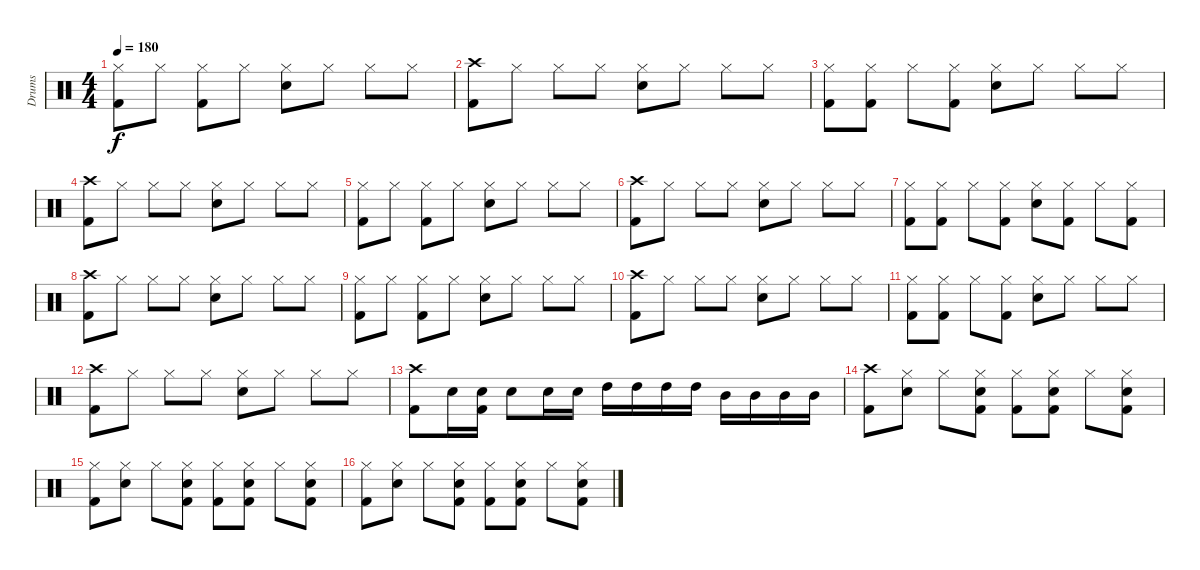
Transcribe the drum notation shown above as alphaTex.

\track ("Drums" "Drums") {instrument percussion}
\staff {score}
\articulation defaults
\ts (4 4)
\tempo 180
\clef neutral
\ks c
("Hi-Hat (closed)" "Kick (hit) 2").8{dy f} "Hi-Hat (closed)".8 ("Hi-Hat (closed)" "Kick (hit) 2").8 "Hi-Hat (closed)".8 ("Hi-Hat (closed)" "Snare (hit) 2").8 "Hi-Hat (closed)".8 "Hi-Hat (closed)".8 "Hi-Hat (closed)".8 |
("Crash high (hit)" "Kick (hit) 2").8 "Hi-Hat (closed)".8 "Hi-Hat (closed)".8 "Hi-Hat (closed)".8 ("Hi-Hat (closed)" "Snare (hit) 2").8 "Hi-Hat (closed)".8 "Hi-Hat (closed)".8 "Hi-Hat (closed)".8 |
("Hi-Hat (closed)" "Kick (hit) 2").8 ("Hi-Hat (closed)" "Kick (hit) 2").8 "Hi-Hat (closed)".8 ("Hi-Hat (closed)" "Kick (hit) 2").8 ("Hi-Hat (closed)" "Snare (hit) 2").8 "Hi-Hat (closed)".8 "Hi-Hat (closed)".8 "Hi-Hat (closed)".8 |
("Crash high (hit)" "Kick (hit) 2").8 "Hi-Hat (closed)".8 "Hi-Hat (closed)".8 "Hi-Hat (closed)".8 ("Hi-Hat (closed)" "Snare (hit) 2").8 "Hi-Hat (closed)".8 "Hi-Hat (closed)".8 "Hi-Hat (closed)".8 |
("Hi-Hat (closed)" "Kick (hit) 2").8 "Hi-Hat (closed)".8 ("Hi-Hat (closed)" "Kick (hit) 2").8 "Hi-Hat (closed)".8 ("Hi-Hat (closed)" "Snare (hit) 2").8 "Hi-Hat (closed)".8 "Hi-Hat (closed)".8 "Hi-Hat (closed)".8 |
("Crash high (hit)" "Kick (hit) 2").8 "Hi-Hat (closed)".8 "Hi-Hat (closed)".8 "Hi-Hat (closed)".8 ("Hi-Hat (closed)" "Snare (hit) 2").8 "Hi-Hat (closed)".8 "Hi-Hat (closed)".8 "Hi-Hat (closed)".8 |
("Hi-Hat (closed)" "Kick (hit) 2").8 ("Hi-Hat (closed)" "Kick (hit) 2").8 "Hi-Hat (closed)".8 ("Hi-Hat (closed)" "Kick (hit) 2").8 ("Hi-Hat (closed)" "Snare (hit) 2").8 ("Hi-Hat (closed)" "Kick (hit) 2").8 "Hi-Hat (closed)".8 ("Hi-Hat (closed)" "Kick (hit) 2").8 |
("Crash high (hit)" "Kick (hit) 2").8 "Hi-Hat (closed)".8 "Hi-Hat (closed)".8 "Hi-Hat (closed)".8 ("Hi-Hat (closed)" "Snare (hit) 2").8 "Hi-Hat (closed)".8 "Hi-Hat (closed)".8 "Hi-Hat (closed)".8 |
("Hi-Hat (closed)" "Kick (hit) 2").8 "Hi-Hat (closed)".8 ("Hi-Hat (closed)" "Kick (hit) 2").8 "Hi-Hat (closed)".8 ("Hi-Hat (closed)" "Snare (hit) 2").8 "Hi-Hat (closed)".8 "Hi-Hat (closed)".8 "Hi-Hat (closed)".8 |
("Crash high (hit)" "Kick (hit) 2").8 "Hi-Hat (closed)".8 "Hi-Hat (closed)".8 "Hi-Hat (closed)".8 ("Hi-Hat (closed)" "Snare (hit) 2").8 "Hi-Hat (closed)".8 "Hi-Hat (closed)".8 "Hi-Hat (closed)".8 |
("Hi-Hat (closed)" "Kick (hit) 2").8 ("Hi-Hat (closed)" "Kick (hit) 2").8 "Hi-Hat (closed)".8 ("Hi-Hat (closed)" "Kick (hit) 2").8 ("Hi-Hat (closed)" "Snare (hit) 2").8 "Hi-Hat (closed)".8 "Hi-Hat (closed)".8 "Hi-Hat (closed)".8 |
("Crash high (hit)" "Kick (hit) 2").8 "Hi-Hat (closed)".8 "Hi-Hat (closed)".8 "Hi-Hat (closed)".8 ("Hi-Hat (closed)" "Snare (hit) 2").8 "Hi-Hat (closed)".8 "Hi-Hat (closed)".8 "Hi-Hat (closed)".8 |
("Crash high (hit)" "Kick (hit) 2").8 "Snare (hit) 2".16 ("Snare (hit) 2" "Kick (hit) 2").16 "Snare (hit) 2".8 "Snare (hit) 2".16 "Snare (hit) 2".16 "High Tom (hit)".16 "High Tom (hit)".16 "High Tom (hit)".16 "High Tom (hit)".16 "Mid Tom (hit)".16 "Mid Tom (hit)".16 "Mid Tom (hit)".16 "Mid Tom (hit)".16 |
("Crash high (hit)" "Kick (hit) 2").8 ("Hi-Hat (closed)" "Snare (hit) 2").8 "Hi-Hat (closed)".8 ("Hi-Hat (closed)" "Snare (hit) 2" "Kick (hit) 2").8 ("Hi-Hat (closed)" "Kick (hit) 2").8 ("Hi-Hat (closed)" "Snare (hit) 2" "Kick (hit) 2").8 "Hi-Hat (closed)".8 ("Hi-Hat (closed)" "Snare (hit) 2" "Kick (hit) 2").8 |
("Hi-Hat (closed)" "Kick (hit) 2").8 ("Hi-Hat (closed)" "Snare (hit) 2").8 "Hi-Hat (closed)".8 ("Hi-Hat (closed)" "Snare (hit) 2" "Kick (hit) 2").8 ("Hi-Hat (closed)" "Kick (hit) 2").8 ("Hi-Hat (closed)" "Snare (hit) 2" "Kick (hit) 2").8 "Hi-Hat (closed)".8 ("Hi-Hat (closed)" "Snare (hit) 2" "Kick (hit) 2").8 |
("Hi-Hat (closed)" "Kick (hit) 2").8 ("Hi-Hat (closed)" "Snare (hit) 2").8 "Hi-Hat (closed)".8 ("Hi-Hat (closed)" "Snare (hit) 2" "Kick (hit) 2").8 ("Hi-Hat (closed)" "Kick (hit) 2").8 ("Hi-Hat (closed)" "Snare (hit) 2" "Kick (hit) 2").8 "Hi-Hat (closed)".8 ("Hi-Hat (closed)" "Snare (hit) 2" "Kick (hit) 2").8
